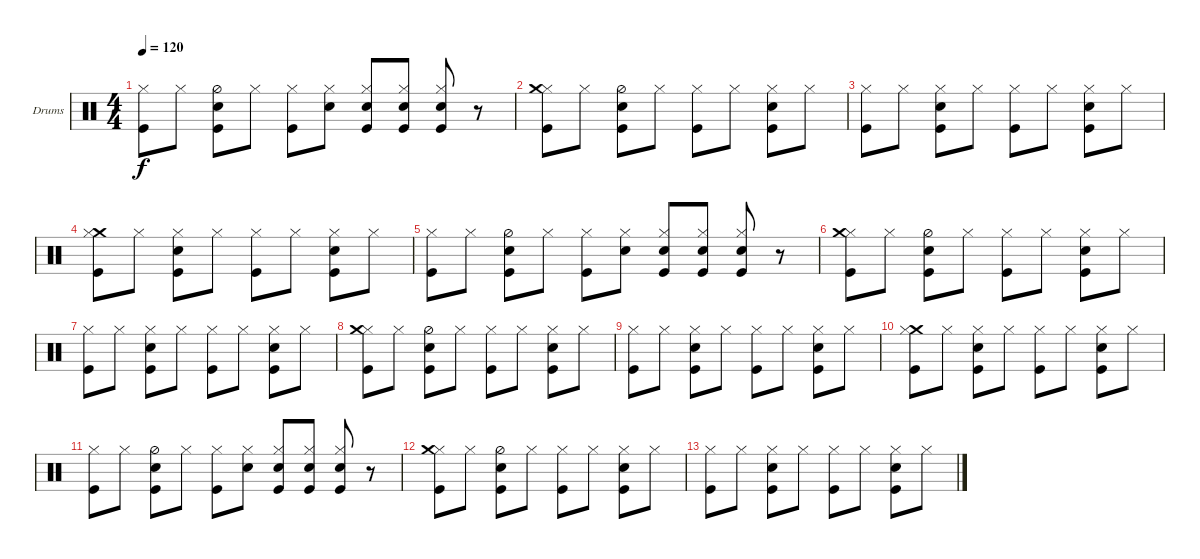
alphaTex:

\bracketExtendMode nobrackets
\firstSystemTrackNameOrientation horizontal
\otherSystemsTrackNameOrientation horizontal
\track ("Drumkit" "Drums") {instrument percussion}
\staff {score}
\articulation defaults
\ts (4 4)
\tempo 120
\clef neutral
\ks c
("Kick (hit)" "Hi-Hat (closed)").8{dy f} "Hi-Hat (closed)".8 ("Snare (hit) 2" "Hi-Hat (half)" "Kick (hit)").8 "Hi-Hat (closed)".8 ("Kick (hit)" "Hi-Hat (closed)").8 ("Hi-Hat (closed)" "Snare (hit) 2").8 ("Kick (hit)" "Snare (hit) 2" "Hi-Hat (closed)").8 ("Hi-Hat (closed)" "Snare (hit) 2" "Kick (hit)").8 ("Kick (hit)" "Hi-Hat (closed)" "Snare (hit) 2").8 r.8 |
("Kick (hit)" "Hi-Hat (closed)" "Crash medium (hit)").8 "Hi-Hat (closed)".8 ("Kick (hit)" "Hi-Hat (half)" "Snare (hit) 2").8 "Hi-Hat (closed)".8 ("Kick (hit)" "Hi-Hat (closed)").8 "Hi-Hat (closed)".8 ("Kick (hit)" "Snare (hit) 2" "Hi-Hat (closed)").8 "Hi-Hat (closed)".8 |
("Kick (hit)" "Hi-Hat (closed)").8 "Hi-Hat (closed)".8 ("Kick (hit)" "Snare (hit) 2" "Hi-Hat (closed)").8 "Hi-Hat (closed)".8 ("Kick (hit)" "Hi-Hat (closed)").8 "Hi-Hat (closed)".8 ("Kick (hit)" "Snare (hit) 2" "Hi-Hat (closed)").8 "Hi-Hat (closed)".8 |
("Kick (hit)" "Crash medium (hit)" "Hi-Hat (closed)").8 "Hi-Hat (closed)".8 ("Kick (hit)" "Snare (hit) 2" "Hi-Hat (closed)").8 "Hi-Hat (closed)".8 ("Kick (hit)" "Hi-Hat (closed)").8 "Hi-Hat (closed)".8 ("Kick (hit)" "Snare (hit) 2" "Hi-Hat (closed)").8 "Hi-Hat (closed)".8 |
("Kick (hit)" "Hi-Hat (closed)").8 "Hi-Hat (closed)".8 ("Snare (hit) 2" "Hi-Hat (half)" "Kick (hit)").8 "Hi-Hat (closed)".8 ("Kick (hit)" "Hi-Hat (closed)").8 ("Hi-Hat (closed)" "Snare (hit) 2").8 ("Kick (hit)" "Snare (hit) 2" "Hi-Hat (closed)").8 ("Hi-Hat (closed)" "Snare (hit) 2" "Kick (hit)").8 ("Kick (hit)" "Hi-Hat (closed)" "Snare (hit) 2").8 r.8 |
("Kick (hit)" "Hi-Hat (closed)" "Crash medium (hit)").8 "Hi-Hat (closed)".8 ("Kick (hit)" "Hi-Hat (half)" "Snare (hit) 2").8 "Hi-Hat (closed)".8 ("Kick (hit)" "Hi-Hat (closed)").8 "Hi-Hat (closed)".8 ("Kick (hit)" "Snare (hit) 2" "Hi-Hat (closed)").8 "Hi-Hat (closed)".8 |
("Kick (hit)" "Hi-Hat (closed)").8 "Hi-Hat (closed)".8 ("Kick (hit)" "Snare (hit) 2" "Hi-Hat (closed)").8 "Hi-Hat (closed)".8 ("Kick (hit)" "Hi-Hat (closed)").8 "Hi-Hat (closed)".8 ("Kick (hit)" "Snare (hit) 2" "Hi-Hat (closed)").8 "Hi-Hat (closed)".8 |
("Kick (hit)" "Hi-Hat (closed)" "Crash medium (hit)").8 "Hi-Hat (closed)".8 ("Kick (hit)" "Hi-Hat (half)" "Snare (hit) 2").8 "Hi-Hat (closed)".8 ("Kick (hit)" "Hi-Hat (closed)").8 "Hi-Hat (closed)".8 ("Kick (hit)" "Snare (hit) 2" "Hi-Hat (closed)").8 "Hi-Hat (closed)".8 |
("Kick (hit)" "Hi-Hat (closed)").8 "Hi-Hat (closed)".8 ("Kick (hit)" "Snare (hit) 2" "Hi-Hat (closed)").8 "Hi-Hat (closed)".8 ("Kick (hit)" "Hi-Hat (closed)").8 "Hi-Hat (closed)".8 ("Kick (hit)" "Snare (hit) 2" "Hi-Hat (closed)").8 "Hi-Hat (closed)".8 |
("Kick (hit)" "Crash medium (hit)" "Hi-Hat (closed)").8 "Hi-Hat (closed)".8 ("Kick (hit)" "Snare (hit) 2" "Hi-Hat (closed)").8 "Hi-Hat (closed)".8 ("Kick (hit)" "Hi-Hat (closed)").8 "Hi-Hat (closed)".8 ("Kick (hit)" "Snare (hit) 2" "Hi-Hat (closed)").8 "Hi-Hat (closed)".8 |
("Kick (hit)" "Hi-Hat (closed)").8 "Hi-Hat (closed)".8 ("Snare (hit) 2" "Hi-Hat (half)" "Kick (hit)").8 "Hi-Hat (closed)".8 ("Kick (hit)" "Hi-Hat (closed)").8 ("Hi-Hat (closed)" "Snare (hit) 2").8 ("Kick (hit)" "Snare (hit) 2" "Hi-Hat (closed)").8 ("Hi-Hat (closed)" "Snare (hit) 2" "Kick (hit)").8 ("Kick (hit)" "Hi-Hat (closed)" "Snare (hit) 2").8 r.8 |
("Kick (hit)" "Hi-Hat (closed)" "Crash medium (hit)").8 "Hi-Hat (closed)".8 ("Kick (hit)" "Hi-Hat (half)" "Snare (hit) 2").8 "Hi-Hat (closed)".8 ("Kick (hit)" "Hi-Hat (closed)").8 "Hi-Hat (closed)".8 ("Kick (hit)" "Snare (hit) 2" "Hi-Hat (closed)").8 "Hi-Hat (closed)".8 |
("Kick (hit)" "Hi-Hat (closed)").8 "Hi-Hat (closed)".8 ("Kick (hit)" "Snare (hit) 2" "Hi-Hat (closed)").8 "Hi-Hat (closed)".8 ("Kick (hit)" "Hi-Hat (closed)").8 "Hi-Hat (closed)".8 ("Kick (hit)" "Snare (hit) 2" "Hi-Hat (closed)").8 "Hi-Hat (closed)".8
